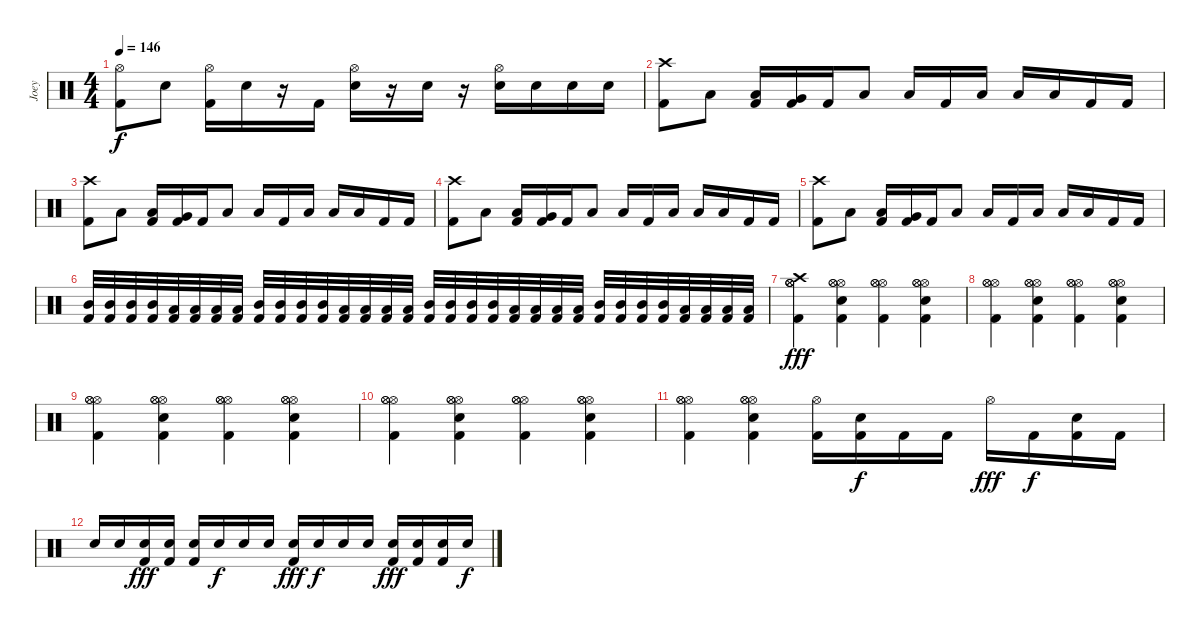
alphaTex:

\track ("Joey" "Joey") {instrument percussion}
\staff {score}
\articulation defaults
\ts (4 4)
\tempo 146
\clef neutral
\ks c
("Hi-Hat (open)" "Kick (hit) 2").8{dy f} "Electric Snare (hit)".8 ("Hi-Hat (open)" "Kick (hit) 2").16 "Electric Snare (hit)".16 r.16 "Kick (hit) 2".16 ("Hi-Hat (open)" "Electric Snare (hit)").16 r.16 "Electric Snare (hit)".16 r.16 ("Hi-Hat (open)" "Electric Snare (hit)").16 "Electric Snare (hit)".16 "Electric Snare (hit)".16 "Electric Snare (hit)".16 |
("Crash high (hit)" "Kick (hit) 2").8 "Low Tom (hit)".8 ("Low Tom (hit)" "Kick (hit) 2").16 ("Very Low Tom (hit)" "Kick (hit) 2").16 "Kick (hit) 2".16 "Low Tom (hit)".8 "Low Tom (hit)".16 "Kick (hit) 2".16 "Low Floor Tom (hit)".16 "Low Floor Tom (hit)".16 "Low Floor Tom (hit)".16 "Kick (hit) 2".16 "Kick (hit) 2".16 |
("Crash high (hit)" "Kick (hit) 2").8 "Low Tom (hit)".8 ("Low Tom (hit)" "Kick (hit) 2").16 ("Very Low Tom (hit)" "Kick (hit) 2").16 "Kick (hit) 2".16 "Low Tom (hit)".8 "Low Tom (hit)".16 "Kick (hit) 2".16 "Low Floor Tom (hit)".16 "Low Floor Tom (hit)".16 "Low Floor Tom (hit)".16 "Kick (hit) 2".16 "Kick (hit) 2".16 |
("Crash high (hit)" "Kick (hit) 2").8 "Low Tom (hit)".8 ("Low Tom (hit)" "Kick (hit) 2").16 ("Very Low Tom (hit)" "Kick (hit) 2").16 "Kick (hit) 2".16 "Low Tom (hit)".8 "Low Tom (hit)".16 "Kick (hit) 2".16 "Low Floor Tom (hit)".16 "Low Floor Tom (hit)".16 "Low Floor Tom (hit)".16 "Kick (hit) 2".16 "Kick (hit) 2".16 |
("Crash high (hit)" "Kick (hit) 2").8 "Low Tom (hit)".8 ("Low Tom (hit)" "Kick (hit) 2").16 ("Very Low Tom (hit)" "Kick (hit) 2").16 "Kick (hit) 2".16 "Low Tom (hit)".8 "Low Tom (hit)".16 "Kick (hit) 2".16 "Low Floor Tom (hit)".16 "Low Floor Tom (hit)".16 "Low Floor Tom (hit)".16 "Kick (hit) 2".16 "Kick (hit) 2".16 |
("Mid Tom (hit)" "Kick (hit) 2").32 ("Mid Tom (hit)" "Kick (hit) 2").32 ("Mid Tom (hit)" "Kick (hit) 2").32 ("Mid Tom (hit)" "Kick (hit) 2").32 ("Low Tom (hit)" "Kick (hit) 2").32 ("Low Tom (hit)" "Kick (hit) 2").32 ("Low Tom (hit)" "Kick (hit) 2").32 ("Low Tom (hit)" "Kick (hit) 2").32 ("Mid Tom (hit)" "Kick (hit) 2").32 ("Mid Tom (hit)" "Kick (hit) 2").32 ("Mid Tom (hit)" "Kick (hit) 2").32 ("Mid Tom (hit)" "Kick (hit) 2").32 ("Low Tom (hit)" "Kick (hit) 2").32 ("Low Tom (hit)" "Kick (hit) 2").32 ("Low Tom (hit)" "Kick (hit) 2").32 ("Low Tom (hit)" "Kick (hit) 2").32 ("Mid Tom (hit)" "Kick (hit) 2").32 ("Mid Tom (hit)" "Kick (hit) 2").32 ("Mid Tom (hit)" "Kick (hit) 2").32 ("Mid Tom (hit)" "Kick (hit) 2").32 ("Low Tom (hit)" "Kick (hit) 2").32 ("Low Tom (hit)" "Kick (hit) 2").32 ("Low Tom (hit)" "Kick (hit) 2").32 ("Low Tom (hit)" "Kick (hit) 2").32 ("Mid Tom (hit)" "Kick (hit) 2").32 ("Mid Tom (hit)" "Kick (hit) 2").32 ("Mid Tom (hit)" "Kick (hit) 2").32 ("Mid Tom (hit)" "Kick (hit) 2").32 ("Low Tom (hit)" "Kick (hit) 2").32 ("Low Tom (hit)" "Kick (hit) 2").32 ("Low Tom (hit)" "Kick (hit) 2").32 ("Low Tom (hit)" "Kick (hit) 2").32 |
("Hi-Hat (open)" "Hi-Hat (open)" "Hi-Hat (open)" "Crash high (hit)" "Kick (hit) 2").4{dy fff} ("Hi-Hat (open)" "Hi-Hat (open)" "Hi-Hat (open)" "Electric Snare (hit)" "Kick (hit) 2").4 ("Hi-Hat (open)" "Hi-Hat (open)" "Hi-Hat (open)" "Kick (hit) 2").4 ("Hi-Hat (open)" "Hi-Hat (open)" "Hi-Hat (open)" "Electric Snare (hit)" "Kick (hit) 2").4 |
("Hi-Hat (open)" "Hi-Hat (open)" "Hi-Hat (open)" "Kick (hit) 2").4 ("Hi-Hat (open)" "Hi-Hat (open)" "Hi-Hat (open)" "Electric Snare (hit)" "Kick (hit) 2").4 ("Hi-Hat (open)" "Hi-Hat (open)" "Hi-Hat (open)" "Kick (hit) 2").4 ("Hi-Hat (open)" "Hi-Hat (open)" "Hi-Hat (open)" "Electric Snare (hit)" "Kick (hit) 2").4 |
("Hi-Hat (open)" "Hi-Hat (open)" "Hi-Hat (open)" "Kick (hit) 2").4 ("Hi-Hat (open)" "Hi-Hat (open)" "Hi-Hat (open)" "Electric Snare (hit)" "Kick (hit) 2").4 ("Hi-Hat (open)" "Hi-Hat (open)" "Hi-Hat (open)" "Kick (hit) 2").4 ("Hi-Hat (open)" "Hi-Hat (open)" "Hi-Hat (open)" "Electric Snare (hit)" "Kick (hit) 2").4 |
("Hi-Hat (open)" "Hi-Hat (open)" "Hi-Hat (open)" "Kick (hit) 2").4 ("Hi-Hat (open)" "Hi-Hat (open)" "Hi-Hat (open)" "Electric Snare (hit)" "Kick (hit) 2").4 ("Hi-Hat (open)" "Hi-Hat (open)" "Hi-Hat (open)" "Kick (hit) 2").4 ("Hi-Hat (open)" "Hi-Hat (open)" "Hi-Hat (open)" "Electric Snare (hit)" "Kick (hit) 2").4 |
("Hi-Hat (open)" "Hi-Hat (open)" "Hi-Hat (open)" "Kick (hit) 2").4 ("Hi-Hat (open)" "Hi-Hat (open)" "Hi-Hat (open)" "Electric Snare (hit)" "Kick (hit) 2").4 ("Hi-Hat (open)" "Kick (hit) 2").16 ("Electric Snare (hit)" "Kick (hit) 2").16{dy f} "Kick (hit) 2".16 "Kick (hit) 2".16 "Hi-Hat (open)".16{dy fff} "Kick (hit) 2".16{dy f} ("Electric Snare (hit)" "Kick (hit) 2").16 "Kick (hit) 2".16 |
"Snare (hit)".16 "Snare (hit)".16 ("Snare (hit)" "Kick (hit) 2").16{dy fff} ("Snare (hit)" "Kick (hit) 2").16 ("Snare (hit)" "Kick (hit) 2").16 "Snare (hit)".16{dy f} "Snare (hit)".16 "Snare (hit)".16 ("Snare (hit)" "Kick (hit) 2").16{dy fff} "Snare (hit)".16{dy f} "Snare (hit)".16 "Snare (hit)".16 ("Snare (hit)" "Kick (hit) 2").16{dy fff} ("Snare (hit)" "Kick (hit) 2").16 ("Snare (hit)" "Kick (hit) 2").16 "Snare (hit)".16{dy f}
